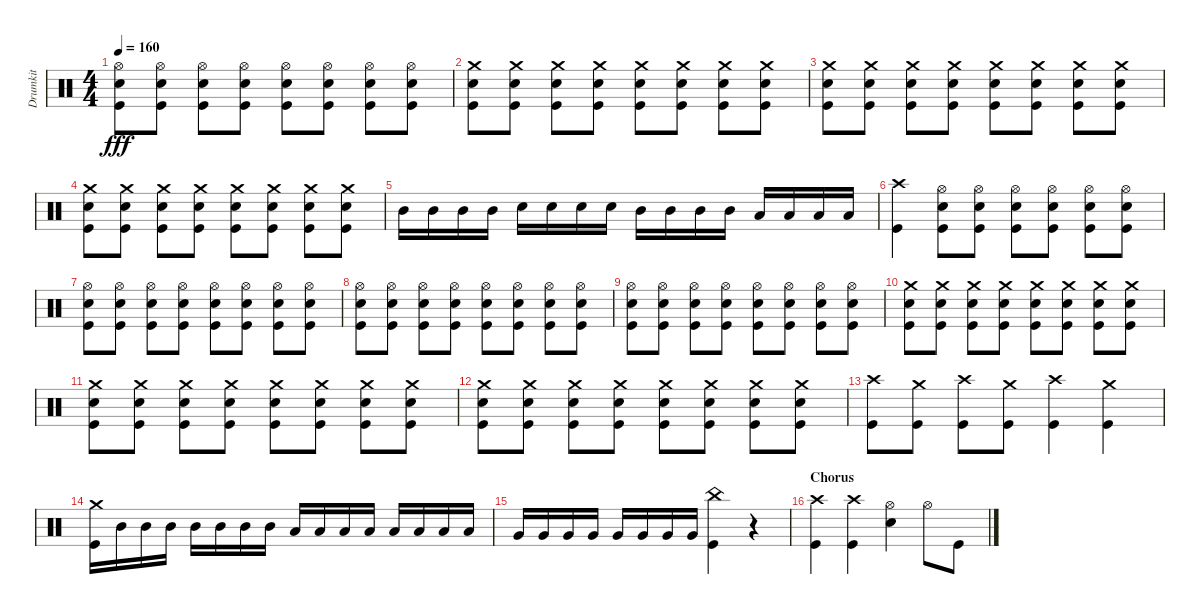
\track ("Drumkit" "Drumkit") {instrument percussion}
\staff {score}
\articulation defaults
\ts (4 4)
\tempo 160
\clef neutral
\ks c
("Kick (hit)" "Snare (hit) 2" "Hi-Hat (open)").8{dy fff} ("Kick (hit)" "Snare (hit) 2" "Hi-Hat (open)").8 ("Kick (hit)" "Hi-Hat (open)" "Snare (hit) 2").8 ("Kick (hit)" "Snare (hit) 2" "Hi-Hat (open)").8 ("Kick (hit)" "Hi-Hat (open)" "Snare (hit) 2").8 ("Kick (hit)" "Snare (hit) 2" "Hi-Hat (open)").8 ("Kick (hit)" "Hi-Hat (open)" "Snare (hit) 2").8 ("Kick (hit)" "Snare (hit) 2" "Hi-Hat (open)").8 |
("Kick (hit)" "Crash medium (hit)" "Snare (hit) 2").8 ("Kick (hit)" "Crash medium (hit)" "Snare (hit) 2").8 ("Kick (hit)" "Crash medium (hit)" "Snare (hit) 2").8 ("Kick (hit)" "Crash medium (hit)" "Snare (hit) 2").8 ("Kick (hit)" "Crash medium (hit)" "Snare (hit) 2").8 ("Kick (hit)" "Crash medium (hit)" "Snare (hit) 2").8 ("Kick (hit)" "Crash medium (hit)" "Snare (hit) 2").8 ("Kick (hit)" "Crash medium (hit)" "Snare (hit) 2").8 |
("Kick (hit)" "Crash medium (hit)" "Snare (hit) 2").8 ("Kick (hit)" "Crash medium (hit)" "Snare (hit) 2").8 ("Kick (hit)" "Crash medium (hit)" "Snare (hit) 2").8 ("Kick (hit)" "Crash medium (hit)" "Snare (hit) 2").8 ("Kick (hit)" "Crash medium (hit)" "Snare (hit) 2").8 ("Kick (hit)" "Crash medium (hit)" "Snare (hit) 2").8 ("Kick (hit)" "Crash medium (hit)" "Snare (hit) 2").8 ("Kick (hit)" "Crash medium (hit)" "Snare (hit) 2").8 |
("Kick (hit)" "Crash medium (hit)" "Snare (hit) 2").8 ("Kick (hit)" "Crash medium (hit)" "Snare (hit) 2").8 ("Kick (hit)" "Crash medium (hit)" "Snare (hit) 2").8 ("Kick (hit)" "Crash medium (hit)" "Snare (hit) 2").8 ("Kick (hit)" "Crash medium (hit)" "Snare (hit) 2").8 ("Kick (hit)" "Crash medium (hit)" "Snare (hit) 2").8 ("Kick (hit)" "Crash medium (hit)" "Snare (hit) 2").8 ("Kick (hit)" "Crash medium (hit)" "Snare (hit) 2").8 |
"Mid Tom (hit)".16 "Mid Tom (hit)".16 "Mid Tom (hit)".16 "Mid Tom (hit)".16 "Snare (hit) 2".16 "Snare (hit) 2".16 "Snare (hit) 2".16 "Snare (hit) 2".16 "Mid Tom (hit)".16 "Mid Tom (hit)".16 "Mid Tom (hit)".16 "Mid Tom (hit)".16 "Low Tom (hit)".16 "Low Tom (hit)".16 "Low Tom (hit)".16 "Low Tom (hit)".16 |
("Kick (hit)" "Crash high (hit)").4 ("Kick (hit)" "Hi-Hat (open)" "Snare (hit) 2").8 ("Kick (hit)" "Snare (hit) 2" "Hi-Hat (open)").8 ("Kick (hit)" "Hi-Hat (open)" "Snare (hit) 2").8 ("Kick (hit)" "Snare (hit) 2" "Hi-Hat (open)").8 ("Kick (hit)" "Hi-Hat (open)" "Snare (hit) 2").8 ("Kick (hit)" "Snare (hit) 2" "Hi-Hat (open)").8 |
("Kick (hit)" "Hi-Hat (open)" "Snare (hit) 2").8 ("Kick (hit)" "Snare (hit) 2" "Hi-Hat (open)").8 ("Kick (hit)" "Hi-Hat (open)" "Snare (hit) 2").8 ("Kick (hit)" "Snare (hit) 2" "Hi-Hat (open)").8 ("Kick (hit)" "Hi-Hat (open)" "Snare (hit) 2").8 ("Kick (hit)" "Snare (hit) 2" "Hi-Hat (open)").8 ("Kick (hit)" "Hi-Hat (open)" "Snare (hit) 2").8 ("Kick (hit)" "Snare (hit) 2" "Hi-Hat (open)").8 |
("Kick (hit)" "Hi-Hat (open)" "Snare (hit) 2").8 ("Kick (hit)" "Snare (hit) 2" "Hi-Hat (open)").8 ("Kick (hit)" "Hi-Hat (open)" "Snare (hit) 2").8 ("Kick (hit)" "Snare (hit) 2" "Hi-Hat (open)").8 ("Kick (hit)" "Hi-Hat (open)" "Snare (hit) 2").8 ("Kick (hit)" "Snare (hit) 2" "Hi-Hat (open)").8 ("Kick (hit)" "Hi-Hat (open)" "Snare (hit) 2").8 ("Kick (hit)" "Snare (hit) 2" "Hi-Hat (open)").8 |
("Kick (hit)" "Hi-Hat (open)" "Snare (hit) 2").8 ("Kick (hit)" "Snare (hit) 2" "Hi-Hat (open)").8 ("Kick (hit)" "Hi-Hat (open)" "Snare (hit) 2").8 ("Kick (hit)" "Snare (hit) 2" "Hi-Hat (open)").8 ("Kick (hit)" "Hi-Hat (open)" "Snare (hit) 2").8 ("Kick (hit)" "Snare (hit) 2" "Hi-Hat (open)").8 ("Kick (hit)" "Hi-Hat (open)" "Snare (hit) 2").8 ("Kick (hit)" "Snare (hit) 2" "Hi-Hat (open)").8 |
("Kick (hit)" "Crash medium (hit)" "Snare (hit) 2").8 ("Kick (hit)" "Crash medium (hit)" "Snare (hit) 2").8 ("Kick (hit)" "Crash medium (hit)" "Snare (hit) 2").8 ("Kick (hit)" "Crash medium (hit)" "Snare (hit) 2").8 ("Kick (hit)" "Crash medium (hit)" "Snare (hit) 2").8 ("Kick (hit)" "Crash medium (hit)" "Snare (hit) 2").8 ("Kick (hit)" "Crash medium (hit)" "Snare (hit) 2").8 ("Kick (hit)" "Crash medium (hit)" "Snare (hit) 2").8 |
("Kick (hit)" "Crash medium (hit)" "Snare (hit) 2").8 ("Kick (hit)" "Crash medium (hit)" "Snare (hit) 2").8 ("Kick (hit)" "Crash medium (hit)" "Snare (hit) 2").8 ("Kick (hit)" "Crash medium (hit)" "Snare (hit) 2").8 ("Kick (hit)" "Crash medium (hit)" "Snare (hit) 2").8 ("Kick (hit)" "Crash medium (hit)" "Snare (hit) 2").8 ("Kick (hit)" "Crash medium (hit)" "Snare (hit) 2").8 ("Kick (hit)" "Crash medium (hit)" "Snare (hit) 2").8 |
("Kick (hit)" "Crash medium (hit)" "Snare (hit) 2").8 ("Kick (hit)" "Crash medium (hit)" "Snare (hit) 2").8 ("Kick (hit)" "Crash medium (hit)" "Snare (hit) 2").8 ("Kick (hit)" "Crash medium (hit)" "Snare (hit) 2").8 ("Kick (hit)" "Crash medium (hit)" "Snare (hit) 2").8 ("Kick (hit)" "Crash medium (hit)" "Snare (hit) 2").8 ("Kick (hit)" "Crash medium (hit)" "Snare (hit) 2").8 ("Kick (hit)" "Crash medium (hit)" "Snare (hit) 2").8 |
("Kick (hit)" "Crash high (hit)").8 ("Kick (hit)" "Crash medium (hit)").8 ("Kick (hit)" "Crash high (hit)").8 ("Kick (hit)" "Crash medium (hit)").8 ("Kick (hit)" "Crash high (hit)").4 ("Kick (hit)" "Crash medium (hit)").4 |
("Kick (hit)" "Crash medium (hit)").16 "Mid Tom (hit)".16 "Mid Tom (hit)".16 "Mid Tom (hit)".16 "Mid Tom (hit)".16 "Mid Tom (hit)".16 "Mid Tom (hit)".16 "Mid Tom (hit)".16 "Low Tom (hit)".16 "Low Tom (hit)".16 "Low Tom (hit)".16 "Low Tom (hit)".16 "Low Tom (hit)".16 "Low Tom (hit)".16 "Low Tom (hit)".16 "Low Tom (hit)".16 |
"Very Low Tom (hit)".16 "Very Low Tom (hit)".16 "Very Low Tom (hit)".16 "Very Low Tom (hit)".16 "Very Low Tom (hit)".16 "Very Low Tom (hit)".16 "Very Low Tom (hit)".16 "Very Low Tom (hit)".16 ("China (hit)" "Kick (hit)").4 r.4 |
\section ("" "Chorus")
("Kick (hit)" "Crash high (hit)").4 ("Kick (hit)" "Crash high (hit)").4 ("Hi-Hat (open)" "Snare (hit) 2").4 "Hi-Hat (open)".8 "Kick (hit)".8
